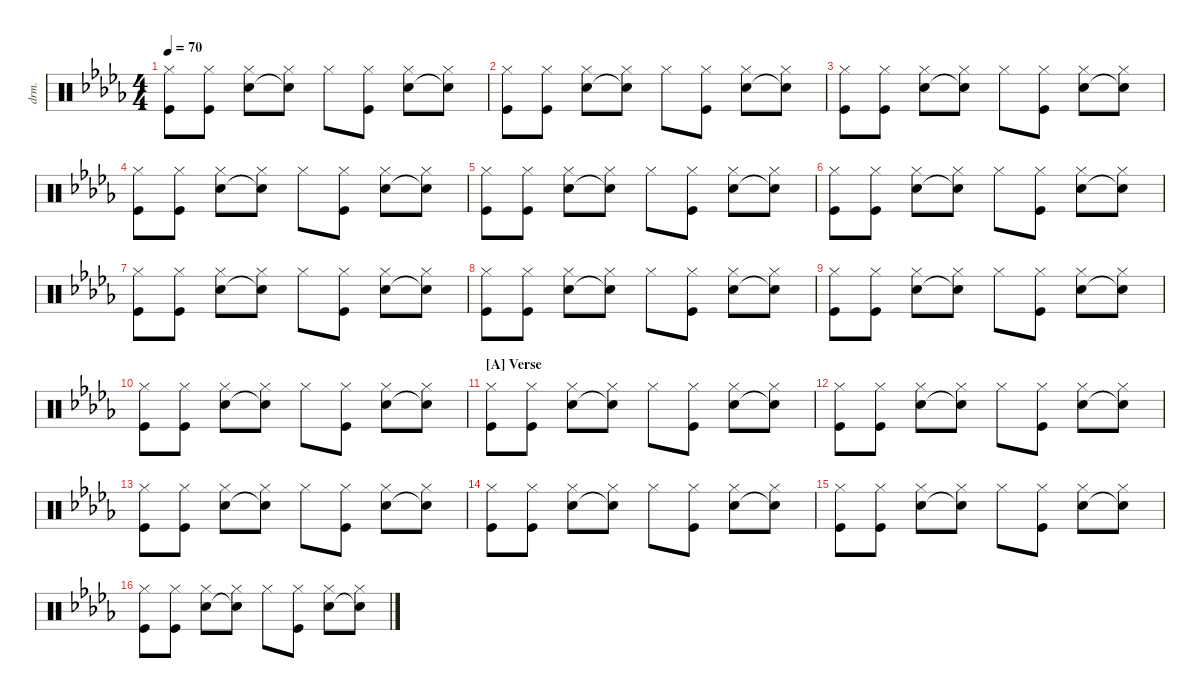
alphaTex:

\defaultSystemsLayout 4
\hideDynamics
\bracketExtendMode nobrackets
\track ("Drumkit" "drm.") {instrument percussion}
\staff {score}
\articulation defaults
\ts (4 4)
\tempo 70
\clef neutral
\ks db
("Kick (hit)"{acc forcenatural} "Hi-Hat (closed)"{acc forcenatural}).8{dy pp} ("Kick (hit)"{acc forcenatural} "Hi-Hat (closed)"{acc forcenatural}).8 ("Snare (hit) 2"{acc forcenatural} "Hi-Hat (closed)"{acc forcenatural}).8 ("Snare (hit) 2"{t acc forcenatural} "Hi-Hat (closed)"{acc forcenatural}).8 "Hi-Hat (closed)"{acc forcenatural}.8 ("Kick (hit)"{acc forcenatural} "Hi-Hat (closed)"{acc forcenatural}).8 ("Snare (hit) 2"{acc forcenatural} "Hi-Hat (closed)"{acc forcenatural}).8 ("Snare (hit) 2"{t acc forcenatural} "Hi-Hat (closed)"{acc forcenatural}).8 |
("Kick (hit)"{acc forcenatural} "Hi-Hat (closed)"{acc forcenatural}).8 ("Kick (hit)"{acc forcenatural} "Hi-Hat (closed)"{acc forcenatural}).8 ("Snare (hit) 2"{acc forcenatural} "Hi-Hat (closed)"{acc forcenatural}).8 ("Snare (hit) 2"{t acc forcenatural} "Hi-Hat (closed)"{acc forcenatural}).8 "Hi-Hat (closed)"{acc forcenatural}.8 ("Kick (hit)"{acc forcenatural} "Hi-Hat (closed)"{acc forcenatural}).8 ("Snare (hit) 2"{acc forcenatural} "Hi-Hat (closed)"{acc forcenatural}).8 ("Snare (hit) 2"{t acc forcenatural} "Hi-Hat (closed)"{acc forcenatural}).8 |
("Kick (hit)"{acc forcenatural} "Hi-Hat (closed)"{acc forcenatural}).8 ("Kick (hit)"{acc forcenatural} "Hi-Hat (closed)"{acc forcenatural}).8 ("Snare (hit) 2"{acc forcenatural} "Hi-Hat (closed)"{acc forcenatural}).8 ("Snare (hit) 2"{t acc forcenatural} "Hi-Hat (closed)"{acc forcenatural}).8 "Hi-Hat (closed)"{acc forcenatural}.8 ("Kick (hit)"{acc forcenatural} "Hi-Hat (closed)"{acc forcenatural}).8 ("Snare (hit) 2"{acc forcenatural} "Hi-Hat (closed)"{acc forcenatural}).8 ("Snare (hit) 2"{t acc forcenatural} "Hi-Hat (closed)"{acc forcenatural}).8 |
("Kick (hit)"{acc forcenatural} "Hi-Hat (closed)"{acc forcenatural}).8 ("Kick (hit)"{acc forcenatural} "Hi-Hat (closed)"{acc forcenatural}).8 ("Snare (hit) 2"{acc forcenatural} "Hi-Hat (closed)"{acc forcenatural}).8 ("Snare (hit) 2"{t acc forcenatural} "Hi-Hat (closed)"{acc forcenatural}).8 "Hi-Hat (closed)"{acc forcenatural}.8 ("Kick (hit)"{acc forcenatural} "Hi-Hat (closed)"{acc forcenatural}).8 ("Snare (hit) 2"{acc forcenatural} "Hi-Hat (closed)"{acc forcenatural}).8 ("Snare (hit) 2"{t acc forcenatural} "Hi-Hat (closed)"{acc forcenatural}).8 |
("Kick (hit)"{acc forcenatural} "Hi-Hat (closed)"{acc forcenatural}).8 ("Kick (hit)"{acc forcenatural} "Hi-Hat (closed)"{acc forcenatural}).8 ("Snare (hit) 2"{acc forcenatural} "Hi-Hat (closed)"{acc forcenatural}).8 ("Snare (hit) 2"{t acc forcenatural} "Hi-Hat (closed)"{acc forcenatural}).8 "Hi-Hat (closed)"{acc forcenatural}.8 ("Kick (hit)"{acc forcenatural} "Hi-Hat (closed)"{acc forcenatural}).8 ("Snare (hit) 2"{acc forcenatural} "Hi-Hat (closed)"{acc forcenatural}).8 ("Snare (hit) 2"{t acc forcenatural} "Hi-Hat (closed)"{acc forcenatural}).8 |
("Kick (hit)"{acc forcenatural} "Hi-Hat (closed)"{acc forcenatural}).8 ("Kick (hit)"{acc forcenatural} "Hi-Hat (closed)"{acc forcenatural}).8 ("Snare (hit) 2"{acc forcenatural} "Hi-Hat (closed)"{acc forcenatural}).8 ("Snare (hit) 2"{t acc forcenatural} "Hi-Hat (closed)"{acc forcenatural}).8 "Hi-Hat (closed)"{acc forcenatural}.8 ("Kick (hit)"{acc forcenatural} "Hi-Hat (closed)"{acc forcenatural}).8 ("Snare (hit) 2"{acc forcenatural} "Hi-Hat (closed)"{acc forcenatural}).8 ("Snare (hit) 2"{t acc forcenatural} "Hi-Hat (closed)"{acc forcenatural}).8 |
("Kick (hit)"{acc forcenatural} "Hi-Hat (closed)"{acc forcenatural}).8 ("Kick (hit)"{acc forcenatural} "Hi-Hat (closed)"{acc forcenatural}).8 ("Snare (hit) 2"{acc forcenatural} "Hi-Hat (closed)"{acc forcenatural}).8 ("Snare (hit) 2"{t acc forcenatural} "Hi-Hat (closed)"{acc forcenatural}).8 "Hi-Hat (closed)"{acc forcenatural}.8 ("Kick (hit)"{acc forcenatural} "Hi-Hat (closed)"{acc forcenatural}).8 ("Snare (hit) 2"{acc forcenatural} "Hi-Hat (closed)"{acc forcenatural}).8 ("Snare (hit) 2"{t acc forcenatural} "Hi-Hat (closed)"{acc forcenatural}).8 |
("Kick (hit)"{acc forcenatural} "Hi-Hat (closed)"{acc forcenatural}).8 ("Kick (hit)"{acc forcenatural} "Hi-Hat (closed)"{acc forcenatural}).8 ("Snare (hit) 2"{acc forcenatural} "Hi-Hat (closed)"{acc forcenatural}).8 ("Snare (hit) 2"{t acc forcenatural} "Hi-Hat (closed)"{acc forcenatural}).8 "Hi-Hat (closed)"{acc forcenatural}.8 ("Kick (hit)"{acc forcenatural} "Hi-Hat (closed)"{acc forcenatural}).8 ("Snare (hit) 2"{acc forcenatural} "Hi-Hat (closed)"{acc forcenatural}).8 ("Snare (hit) 2"{t acc forcenatural} "Hi-Hat (closed)"{acc forcenatural}).8 |
("Kick (hit)"{acc forcenatural} "Hi-Hat (closed)"{acc forcenatural}).8 ("Kick (hit)"{acc forcenatural} "Hi-Hat (closed)"{acc forcenatural}).8 ("Snare (hit) 2"{acc forcenatural} "Hi-Hat (closed)"{acc forcenatural}).8 ("Snare (hit) 2"{t acc forcenatural} "Hi-Hat (closed)"{acc forcenatural}).8 "Hi-Hat (closed)"{acc forcenatural}.8 ("Kick (hit)"{acc forcenatural} "Hi-Hat (closed)"{acc forcenatural}).8 ("Snare (hit) 2"{acc forcenatural} "Hi-Hat (closed)"{acc forcenatural}).8 ("Snare (hit) 2"{t acc forcenatural} "Hi-Hat (closed)"{acc forcenatural}).8 |
("Kick (hit)"{acc forcenatural} "Hi-Hat (closed)"{acc forcenatural}).8 ("Kick (hit)"{acc forcenatural} "Hi-Hat (closed)"{acc forcenatural}).8 ("Snare (hit) 2"{acc forcenatural} "Hi-Hat (closed)"{acc forcenatural}).8 ("Snare (hit) 2"{t acc forcenatural} "Hi-Hat (closed)"{acc forcenatural}).8 "Hi-Hat (closed)"{acc forcenatural}.8 ("Kick (hit)"{acc forcenatural} "Hi-Hat (closed)"{acc forcenatural}).8 ("Snare (hit) 2"{acc forcenatural} "Hi-Hat (closed)"{acc forcenatural}).8 ("Snare (hit) 2"{t acc forcenatural} "Hi-Hat (closed)"{acc forcenatural}).8 |
\section ("A" "Verse")
("Kick (hit)"{acc forcenatural} "Hi-Hat (closed)"{acc forcenatural}).8 ("Kick (hit)"{acc forcenatural} "Hi-Hat (closed)"{acc forcenatural}).8 ("Snare (hit) 2"{acc forcenatural} "Hi-Hat (closed)"{acc forcenatural}).8 ("Snare (hit) 2"{t acc forcenatural} "Hi-Hat (closed)"{acc forcenatural}).8 "Hi-Hat (closed)"{acc forcenatural}.8 ("Kick (hit)"{acc forcenatural} "Hi-Hat (closed)"{acc forcenatural}).8 ("Snare (hit) 2"{acc forcenatural} "Hi-Hat (closed)"{acc forcenatural}).8 ("Snare (hit) 2"{t acc forcenatural} "Hi-Hat (closed)"{acc forcenatural}).8 |
("Kick (hit)"{acc forcenatural} "Hi-Hat (closed)"{acc forcenatural}).8 ("Kick (hit)"{acc forcenatural} "Hi-Hat (closed)"{acc forcenatural}).8 ("Snare (hit) 2"{acc forcenatural} "Hi-Hat (closed)"{acc forcenatural}).8 ("Snare (hit) 2"{t acc forcenatural} "Hi-Hat (closed)"{acc forcenatural}).8 "Hi-Hat (closed)"{acc forcenatural}.8 ("Kick (hit)"{acc forcenatural} "Hi-Hat (closed)"{acc forcenatural}).8 ("Snare (hit) 2"{acc forcenatural} "Hi-Hat (closed)"{acc forcenatural}).8 ("Snare (hit) 2"{t acc forcenatural} "Hi-Hat (closed)"{acc forcenatural}).8 |
("Kick (hit)"{acc forcenatural} "Hi-Hat (closed)"{acc forcenatural}).8 ("Kick (hit)"{acc forcenatural} "Hi-Hat (closed)"{acc forcenatural}).8 ("Snare (hit) 2"{acc forcenatural} "Hi-Hat (closed)"{acc forcenatural}).8 ("Snare (hit) 2"{t acc forcenatural} "Hi-Hat (closed)"{acc forcenatural}).8 "Hi-Hat (closed)"{acc forcenatural}.8 ("Kick (hit)"{acc forcenatural} "Hi-Hat (closed)"{acc forcenatural}).8 ("Snare (hit) 2"{acc forcenatural} "Hi-Hat (closed)"{acc forcenatural}).8 ("Snare (hit) 2"{t acc forcenatural} "Hi-Hat (closed)"{acc forcenatural}).8 |
("Kick (hit)"{acc forcenatural} "Hi-Hat (closed)"{acc forcenatural}).8 ("Kick (hit)"{acc forcenatural} "Hi-Hat (closed)"{acc forcenatural}).8 ("Snare (hit) 2"{acc forcenatural} "Hi-Hat (closed)"{acc forcenatural}).8 ("Snare (hit) 2"{t acc forcenatural} "Hi-Hat (closed)"{acc forcenatural}).8 "Hi-Hat (closed)"{acc forcenatural}.8 ("Kick (hit)"{acc forcenatural} "Hi-Hat (closed)"{acc forcenatural}).8 ("Snare (hit) 2"{acc forcenatural} "Hi-Hat (closed)"{acc forcenatural}).8 ("Snare (hit) 2"{t acc forcenatural} "Hi-Hat (closed)"{acc forcenatural}).8 |
("Kick (hit)"{acc forcenatural} "Hi-Hat (closed)"{acc forcenatural}).8 ("Kick (hit)"{acc forcenatural} "Hi-Hat (closed)"{acc forcenatural}).8 ("Snare (hit) 2"{acc forcenatural} "Hi-Hat (closed)"{acc forcenatural}).8 ("Snare (hit) 2"{t acc forcenatural} "Hi-Hat (closed)"{acc forcenatural}).8 "Hi-Hat (closed)"{acc forcenatural}.8 ("Kick (hit)"{acc forcenatural} "Hi-Hat (closed)"{acc forcenatural}).8 ("Snare (hit) 2"{acc forcenatural} "Hi-Hat (closed)"{acc forcenatural}).8 ("Snare (hit) 2"{t acc forcenatural} "Hi-Hat (closed)"{acc forcenatural}).8 |
("Kick (hit)"{acc forcenatural} "Hi-Hat (closed)"{acc forcenatural}).8 ("Kick (hit)"{acc forcenatural} "Hi-Hat (closed)"{acc forcenatural}).8 ("Snare (hit) 2"{acc forcenatural} "Hi-Hat (closed)"{acc forcenatural}).8 ("Snare (hit) 2"{t acc forcenatural} "Hi-Hat (closed)"{acc forcenatural}).8 "Hi-Hat (closed)"{acc forcenatural}.8 ("Kick (hit)"{acc forcenatural} "Hi-Hat (closed)"{acc forcenatural}).8 ("Snare (hit) 2"{acc forcenatural} "Hi-Hat (closed)"{acc forcenatural}).8 ("Snare (hit) 2"{t acc forcenatural} "Hi-Hat (closed)"{acc forcenatural}).8
